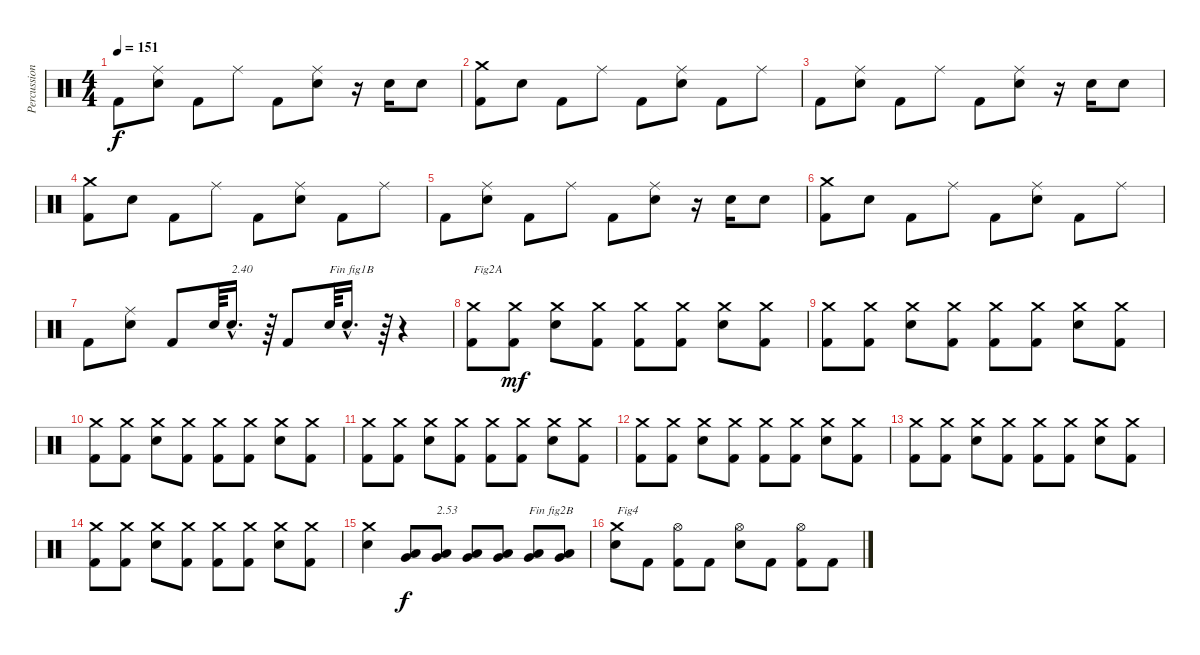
\track ("Percussions" "Percussion") {instrument percussion}
\staff {score}
\articulation defaults
\ts (4 4)
\tempo 151
\clef neutral
\ks c "Kick (hit) 2".8{dy f}
("Electric Snare (hit)" "Ride (middle)").8 "Kick (hit) 2".8 "Ride (middle)".8 "Kick (hit) 2".8 ("Electric Snare (hit)" "Ride (middle)").8 r.16 "Electric Snare (hit)".16 "Electric Snare (hit)".8 |
("Kick (hit) 2" "Crash medium (hit)").8 "Electric Snare (hit)".8 "Kick (hit) 2".8 "Ride (middle)".8 "Kick (hit) 2".8 ("Electric Snare (hit)" "Ride (middle)").8 "Kick (hit) 2".8 "Ride (middle)".8 |
"Kick (hit) 2".8 ("Electric Snare (hit)" "Ride (middle)").8 "Kick (hit) 2".8 "Ride (middle)".8 "Kick (hit) 2".8 ("Electric Snare (hit)" "Ride (middle)").8 r.16 "Electric Snare (hit)".16 "Electric Snare (hit)".8 |
("Kick (hit) 2" "Crash medium (hit)").8 "Electric Snare (hit)".8 "Kick (hit) 2".8 "Ride (middle)".8 "Kick (hit) 2".8 ("Electric Snare (hit)" "Ride (middle)").8 "Kick (hit) 2".8 "Ride (middle)".8 |
"Kick (hit) 2".8 ("Electric Snare (hit)" "Ride (middle)").8 "Kick (hit) 2".8 "Ride (middle)".8 "Kick (hit) 2".8 ("Electric Snare (hit)" "Ride (middle)").8 r.16 "Electric Snare (hit)".16 "Electric Snare (hit)".8 |
("Kick (hit) 2" "Crash medium (hit)").8 "Electric Snare (hit)".8 "Kick (hit) 2".8 "Ride (middle)".8 "Kick (hit) 2".8 ("Electric Snare (hit)" "Ride (middle)").8 "Kick (hit) 2".8 "Ride (middle)".8 |
"Kick (hit) 2".8 ("Electric Snare (hit)" "Ride (middle)").8 "Kick (hit) 2".8 "Electric Snare (hit)".64 "Electric Snare (hit)"{hac}.16{d txt "2.40"} r.64 "Kick (hit) 2".8 "Electric Snare (hit)".64{txt "Fin fig1B"} "Electric Snare (hit)"{hac}.16{d} r.64 r.4 |
("Kick (hit) 2" "Crash medium (hit)").8{txt "Fig2A"} ("Kick (hit) 2" "Crash medium (hit)").8{dy mf} ("Electric Snare (hit)" "Crash medium (hit)").8 ("Kick (hit) 2" "Crash medium (hit)").8 ("Kick (hit) 2" "Crash medium (hit)").8 ("Kick (hit) 2" "Crash medium (hit)").8 ("Electric Snare (hit)" "Crash medium (hit)").8 ("Kick (hit) 2" "Crash medium (hit)").8 |
("Kick (hit) 2" "Crash medium (hit)").8 ("Kick (hit) 2" "Crash medium (hit)").8 ("Electric Snare (hit)" "Crash medium (hit)").8 ("Kick (hit) 2" "Crash medium (hit)").8 ("Kick (hit) 2" "Crash medium (hit)").8 ("Kick (hit) 2" "Crash medium (hit)").8 ("Electric Snare (hit)" "Crash medium (hit)").8 ("Kick (hit) 2" "Crash medium (hit)").8 |
("Kick (hit) 2" "Crash medium (hit)").8 ("Kick (hit) 2" "Crash medium (hit)").8 ("Electric Snare (hit)" "Crash medium (hit)").8 ("Kick (hit) 2" "Crash medium (hit)").8 ("Kick (hit) 2" "Crash medium (hit)").8 ("Kick (hit) 2" "Crash medium (hit)").8 ("Electric Snare (hit)" "Crash medium (hit)").8 ("Kick (hit) 2" "Crash medium (hit)").8 |
("Kick (hit) 2" "Crash medium (hit)").8 ("Kick (hit) 2" "Crash medium (hit)").8 ("Electric Snare (hit)" "Crash medium (hit)").8 ("Kick (hit) 2" "Crash medium (hit)").8 ("Kick (hit) 2" "Crash medium (hit)").8 ("Kick (hit) 2" "Crash medium (hit)").8 ("Electric Snare (hit)" "Crash medium (hit)").8 ("Kick (hit) 2" "Crash medium (hit)").8 |
("Kick (hit) 2" "Crash medium (hit)").8 ("Kick (hit) 2" "Crash medium (hit)").8 ("Electric Snare (hit)" "Crash medium (hit)").8 ("Kick (hit) 2" "Crash medium (hit)").8 ("Kick (hit) 2" "Crash medium (hit)").8 ("Kick (hit) 2" "Crash medium (hit)").8 ("Electric Snare (hit)" "Crash medium (hit)").8 ("Kick (hit) 2" "Crash medium (hit)").8 |
("Kick (hit) 2" "Crash medium (hit)").8 ("Kick (hit) 2" "Crash medium (hit)").8 ("Electric Snare (hit)" "Crash medium (hit)").8 ("Kick (hit) 2" "Crash medium (hit)").8 ("Kick (hit) 2" "Crash medium (hit)").8 ("Kick (hit) 2" "Crash medium (hit)").8 ("Electric Snare (hit)" "Crash medium (hit)").8 ("Kick (hit) 2" "Crash medium (hit)").8 |
("Kick (hit) 2" "Crash medium (hit)").8 ("Kick (hit) 2" "Crash medium (hit)").8 ("Electric Snare (hit)" "Crash medium (hit)").8 ("Kick (hit) 2" "Crash medium (hit)").8 ("Kick (hit) 2" "Crash medium (hit)").8 ("Kick (hit) 2" "Crash medium (hit)").8 ("Electric Snare (hit)" "Crash medium (hit)").8 ("Kick (hit) 2" "Crash medium (hit)").8 |
("Electric Snare (hit)" "Crash medium (hit)").4 ("Very Low Tom (hit)" "Low Floor Tom (hit)").8{dy f} ("Very Low Tom (hit)" "Low Floor Tom (hit)").8{txt "2.53"} ("Very Low Tom (hit)" "Low Floor Tom (hit)").8 ("Very Low Tom (hit)" "Low Floor Tom (hit)").8 ("Very Low Tom (hit)" "Low Floor Tom (hit)").8{txt "Fin fig2B"} ("Very Low Tom (hit)" "Low Floor Tom (hit)").8 |
("Electric Snare (hit)" "Crash medium (hit)").8{txt "Fig4 "} "Kick (hit) 2".8 ("Kick (hit) 2" "Hi-Hat (open)").8 "Kick (hit) 2".8 ("Electric Snare (hit)" "Hi-Hat (open)").8 "Kick (hit) 2".8 ("Kick (hit) 2" "Hi-Hat (open)").8 "Kick (hit) 2".8
